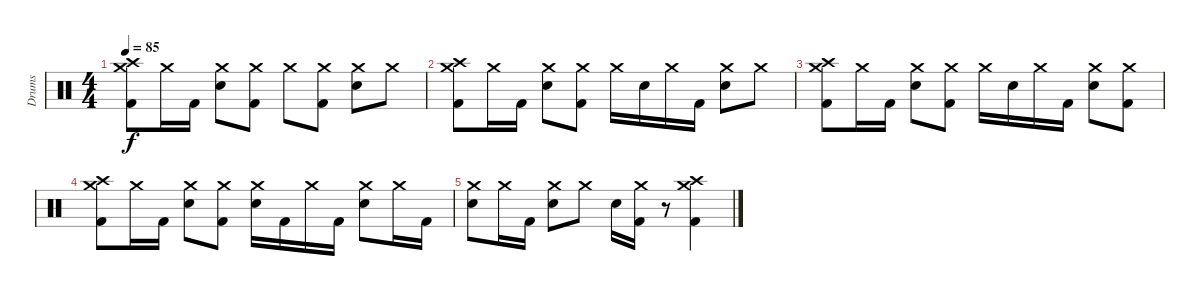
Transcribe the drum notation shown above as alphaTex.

\track ("Drums" "Drums") {instrument percussion}
\staff {score}
\articulation defaults
\ts (4 4)
\tempo 85
\clef neutral
\ks c
("Crash medium (hit)" "Crash high (hit)" "Kick (hit) 2").8{dy f} "Crash medium (hit)".16 "Kick (hit) 2".16 ("Crash medium (hit)" "Snare (hit) 2").8 ("Crash medium (hit)" "Kick (hit) 2").8 "Crash medium (hit)".8 ("Crash medium (hit)" "Kick (hit) 2").8 ("Crash medium (hit)" "Snare (hit) 2").8 "Crash medium (hit)".8 |
("Crash medium (hit)" "Crash high (hit)" "Kick (hit) 2").8 "Crash medium (hit)".16 "Kick (hit) 2".16 ("Crash medium (hit)" "Snare (hit) 2").8 ("Crash medium (hit)" "Kick (hit) 2").8 "Crash medium (hit)".16 "Snare (hit) 2".16 "Crash medium (hit)".16 "Kick (hit) 2".16 ("Crash medium (hit)" "Snare (hit) 2").8 "Crash medium (hit)".8 |
("Crash medium (hit)" "Crash high (hit)" "Kick (hit) 2").8 "Crash medium (hit)".16 "Kick (hit) 2".16 ("Crash medium (hit)" "Snare (hit) 2").8 ("Crash medium (hit)" "Kick (hit) 2").8 "Crash medium (hit)".16 "Snare (hit) 2".16 "Crash medium (hit)".16 "Kick (hit) 2".16 ("Crash medium (hit)" "Snare (hit) 2").8 ("Crash medium (hit)" "Kick (hit) 2").8 |
("Crash medium (hit)" "Crash high (hit)" "Kick (hit) 2").8 "Crash medium (hit)".16 "Kick (hit) 2".16 ("Crash medium (hit)" "Snare (hit) 2").8 ("Crash medium (hit)" "Kick (hit) 2").8 ("Crash medium (hit)" "Snare (hit) 2").16 "Kick (hit) 2".16 "Crash medium (hit)".16 "Kick (hit) 2".16 ("Crash medium (hit)" "Snare (hit) 2").8 "Crash medium (hit)".16 "Kick (hit) 2".16 |
("Crash medium (hit)" "Snare (hit) 2").8 "Crash medium (hit)".16 "Kick (hit) 2".16 ("Crash medium (hit)" "Snare (hit) 2").8 "Crash medium (hit)".8 "Snare (hit) 2".16 ("Crash medium (hit)" "Kick (hit) 2").16 r.8 ("Crash medium (hit)" "Crash high (hit)" "Kick (hit) 2").4
